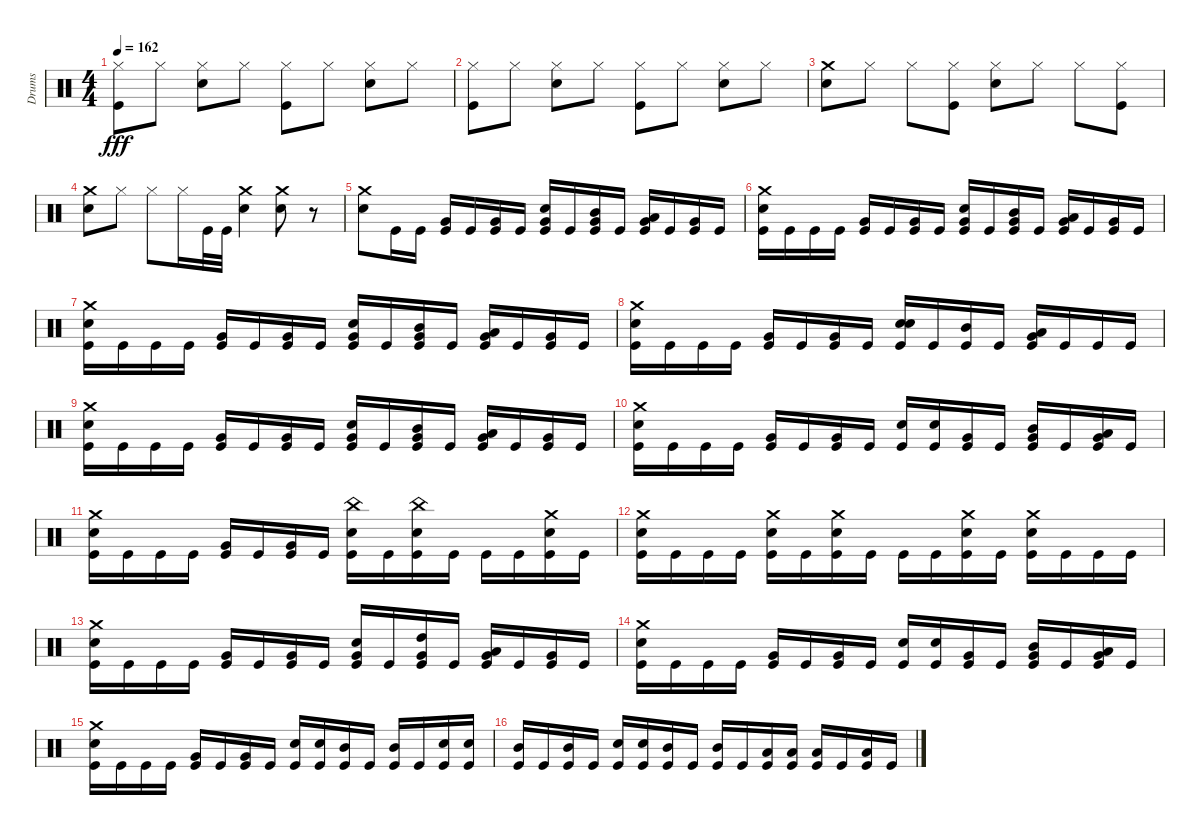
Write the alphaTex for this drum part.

\track ("Drums" "Drums") {instrument percussion}
\staff {score}
\articulation defaults
\ts (4 4)
\tempo 162
\clef neutral
\ks c
("Hi-Hat (closed)" "Kick (hit)").8{dy fff} "Hi-Hat (closed)".8 ("Snare (hit) 2" "Hi-Hat (closed)").8 "Hi-Hat (closed)".8 ("Kick (hit)" "Hi-Hat (closed)").8 "Hi-Hat (closed)".8 ("Snare (hit) 2" "Hi-Hat (closed)").8 "Hi-Hat (closed)".8 |
("Hi-Hat (closed)" "Kick (hit)").8 "Hi-Hat (closed)".8 ("Snare (hit) 2" "Hi-Hat (closed)").8 "Hi-Hat (closed)".8 ("Kick (hit)" "Hi-Hat (closed)").8 "Hi-Hat (closed)".8 ("Snare (hit) 2" "Hi-Hat (closed)").8 "Hi-Hat (closed)".8 |
("Crash medium (hit)" "Snare (hit) 2").8 "Hi-Hat (closed)".8 "Hi-Hat (closed)".8 ("Kick (hit)" "Hi-Hat (closed)").8 ("Snare (hit) 2" "Hi-Hat (closed)").8 "Hi-Hat (closed)".8 "Hi-Hat (closed)".8 ("Kick (hit)" "Hi-Hat (closed)").8 |
("Crash medium (hit)" "Snare (hit) 2").8 "Hi-Hat (closed)".8 "Hi-Hat (closed)".8 "Hi-Hat (closed)".16 "Kick (hit)".32 "Kick (hit)".32 ("Crash medium (hit)" "Snare (hit) 2").4 ("Crash medium (hit)" "Snare (hit) 2").8 r.8 |
("Crash medium (hit)" "Snare (hit) 2").8 "Kick (hit)".16 "Kick (hit)".16 ("Kick (hit)" "Very Low Tom (hit)").16 "Kick (hit)".16 ("Kick (hit)" "Very Low Tom (hit)").16 "Kick (hit)".16 ("Kick (hit)" "Snare (hit) 2" "Very Low Tom (hit)").16 "Kick (hit)".16 ("Kick (hit)" "Mid Tom (hit)" "Very Low Tom (hit)").16 "Kick (hit)".16 ("Kick (hit)" "Low Tom (hit)" "Very Low Tom (hit)").16 "Kick (hit)".16 ("Kick (hit)" "Very Low Tom (hit)").16 "Kick (hit)".16 |
("Kick (hit)" "Crash medium (hit)" "Snare (hit) 2").16 "Kick (hit)".16 "Kick (hit)".16 "Kick (hit)".16 ("Kick (hit)" "Very Low Tom (hit)").16 "Kick (hit)".16 ("Kick (hit)" "Very Low Tom (hit)").16 "Kick (hit)".16 ("Kick (hit)" "Snare (hit) 2" "Very Low Tom (hit)").16 "Kick (hit)".16 ("Kick (hit)" "Mid Tom (hit)" "Very Low Tom (hit)").16 "Kick (hit)".16 ("Kick (hit)" "Low Tom (hit)" "Very Low Tom (hit)").16 "Kick (hit)".16 ("Kick (hit)" "Very Low Tom (hit)").16 "Kick (hit)".16 |
("Kick (hit)" "Crash medium (hit)" "Snare (hit) 2").16 "Kick (hit)".16 "Kick (hit)".16 "Kick (hit)".16 ("Kick (hit)" "Very Low Tom (hit)").16 "Kick (hit)".16 ("Kick (hit)" "Very Low Tom (hit)").16 "Kick (hit)".16 ("Kick (hit)" "Snare (hit) 2" "Very Low Tom (hit)").16 "Kick (hit)".16 ("Kick (hit)" "Mid Tom (hit)" "Very Low Tom (hit)").16 "Kick (hit)".16 ("Kick (hit)" "Low Tom (hit)" "Very Low Tom (hit)").16 "Kick (hit)".16 ("Kick (hit)" "Very Low Tom (hit)").16 "Kick (hit)".16 |
("Kick (hit)" "Crash medium (hit)" "Snare (hit) 2").16 "Kick (hit)".16 "Kick (hit)".16 "Kick (hit)".16 ("Kick (hit)" "Very Low Tom (hit)").16 "Kick (hit)".16 ("Kick (hit)" "Very Low Tom (hit)").16 "Kick (hit)".16 ("Snare (hit) 2" "Kick (hit)" "Snare (hit) 2").16 "Kick (hit)".16 ("Kick (hit)" "Mid Tom (hit)").16 "Kick (hit)".16 ("Low Tom (hit)" "Kick (hit)" "Very Low Tom (hit)").16 "Kick (hit)".16 "Kick (hit)".16 "Kick (hit)".16 |
("Kick (hit)" "Crash medium (hit)" "Snare (hit) 2").16 "Kick (hit)".16 "Kick (hit)".16 "Kick (hit)".16 ("Kick (hit)" "Very Low Tom (hit)").16 "Kick (hit)".16 ("Kick (hit)" "Very Low Tom (hit)").16 "Kick (hit)".16 ("Very Low Tom (hit)" "Snare (hit) 2" "Kick (hit)").16 "Kick (hit)".16 ("Very Low Tom (hit)" "Mid Tom (hit)" "Kick (hit)").16 "Kick (hit)".16 ("Low Tom (hit)" "Very Low Tom (hit)" "Kick (hit)").16 "Kick (hit)".16 ("Very Low Tom (hit)" "Kick (hit)").16 "Kick (hit)".16 |
("Kick (hit)" "Crash medium (hit)" "Snare (hit) 2").16 "Kick (hit)".16 "Kick (hit)".16 "Kick (hit)".16 ("Kick (hit)" "Very Low Tom (hit)").16 "Kick (hit)".16 ("Kick (hit)" "Very Low Tom (hit)").16 "Kick (hit)".16 ("Snare (hit) 2" "Kick (hit)").16 ("Snare (hit) 2" "Kick (hit)").16 ("Kick (hit)" "Very Low Tom (hit)").16 "Kick (hit)".16 ("Mid Tom (hit)" "Kick (hit)" "Very Low Tom (hit)").16 "Kick (hit)".16 ("Low Tom (hit)" "Kick (hit)" "Very Low Tom (hit)").16 "Kick (hit)".16 |
("Kick (hit)" "Crash medium (hit)" "Snare (hit) 2").16 "Kick (hit)".16 "Kick (hit)".16 "Kick (hit)".16 ("Kick (hit)" "Very Low Tom (hit)").16 "Kick (hit)".16 ("Kick (hit)" "Very Low Tom (hit)").16 "Kick (hit)".16 ("China (hit)" "Kick (hit)" "Snare (hit) 2").16 "Kick (hit)".16 ("China (hit)" "Snare (hit) 2" "Kick (hit)").16 "Kick (hit)".16 "Kick (hit)".16 "Kick (hit)".16 ("Crash medium (hit)" "Snare (hit) 2" "Kick (hit)").16 "Kick (hit)".16 |
("Crash medium (hit)" "Kick (hit)" "Snare (hit) 2").16 "Kick (hit)".16 "Kick (hit)".16 "Kick (hit)".16 ("Crash medium (hit)" "Snare (hit) 2" "Kick (hit)").16 "Kick (hit)".16 ("Crash medium (hit)" "Snare (hit) 2" "Kick (hit)").16 "Kick (hit)".16 "Kick (hit)".16 "Kick (hit)".16 ("Crash medium (hit)" "Snare (hit) 2" "Kick (hit)").16 "Kick (hit)".16 ("Crash medium (hit)" "Snare (hit) 2" "Kick (hit)").16 "Kick (hit)".16 "Kick (hit)".16 "Kick (hit)".16 |
("Kick (hit)" "Crash medium (hit)" "Snare (hit) 2").16 "Kick (hit)".16 "Kick (hit)".16 "Kick (hit)".16 ("Kick (hit)" "Very Low Tom (hit)").16 "Kick (hit)".16 ("Kick (hit)" "Very Low Tom (hit)").16 "Kick (hit)".16 ("Very Low Tom (hit)" "Snare (hit) 2" "Kick (hit)").16 "Kick (hit)".16 ("High Tom (hit)" "Kick (hit)" "Very Low Tom (hit)").16 "Kick (hit)".16 ("Low Tom (hit)" "Kick (hit)" "Very Low Tom (hit)").16 "Kick (hit)".16 ("Kick (hit)" "Very Low Tom (hit)").16 "Kick (hit)".16 |
("Kick (hit)" "Crash medium (hit)" "Snare (hit) 2").16 "Kick (hit)".16 "Kick (hit)".16 "Kick (hit)".16 ("Kick (hit)" "Very Low Tom (hit)").16 "Kick (hit)".16 ("Kick (hit)" "Very Low Tom (hit)").16 "Kick (hit)".16 ("Snare (hit) 2" "Kick (hit)").16 ("Snare (hit) 2" "Kick (hit)").16 ("Kick (hit)" "Very Low Tom (hit)").16 "Kick (hit)".16 ("Mid Tom (hit)" "Kick (hit)" "Very Low Tom (hit)").16 "Kick (hit)".16 ("Low Tom (hit)" "Kick (hit)" "Very Low Tom (hit)").16 "Kick (hit)".16 |
("Kick (hit)" "Crash medium (hit)" "Snare (hit) 2").16 "Kick (hit)".16 "Kick (hit)".16 "Kick (hit)".16 ("Kick (hit)" "Very Low Tom (hit)").16 "Kick (hit)".16 ("Kick (hit)" "Very Low Tom (hit)").16 "Kick (hit)".16 ("Snare (hit) 2" "Kick (hit)").16 ("Snare (hit) 2" "Kick (hit)").16 ("Mid Tom (hit)" "Kick (hit)").16 "Kick (hit)".16 ("Mid Tom (hit)" "Kick (hit)").16 "Kick (hit)".16 ("Snare (hit) 2" "Kick (hit)").16 ("Snare (hit) 2" "Kick (hit)").16 |
("Mid Tom (hit)" "Kick (hit)").16 "Kick (hit)".16 ("Mid Tom (hit)" "Kick (hit)").16 "Kick (hit)".16 ("Snare (hit) 2" "Kick (hit)").16 ("Snare (hit) 2" "Kick (hit)").16 ("Mid Tom (hit)" "Kick (hit)").16 "Kick (hit)".16 ("Mid Tom (hit)" "Kick (hit)").16 "Kick (hit)".16 ("Low Tom (hit)" "Kick (hit)").16 ("Low Tom (hit)" "Kick (hit)").16 ("Low Tom (hit)" "Kick (hit)").16 "Kick (hit)".16 ("Low Tom (hit)" "Kick (hit)").16 "Kick (hit)".16
